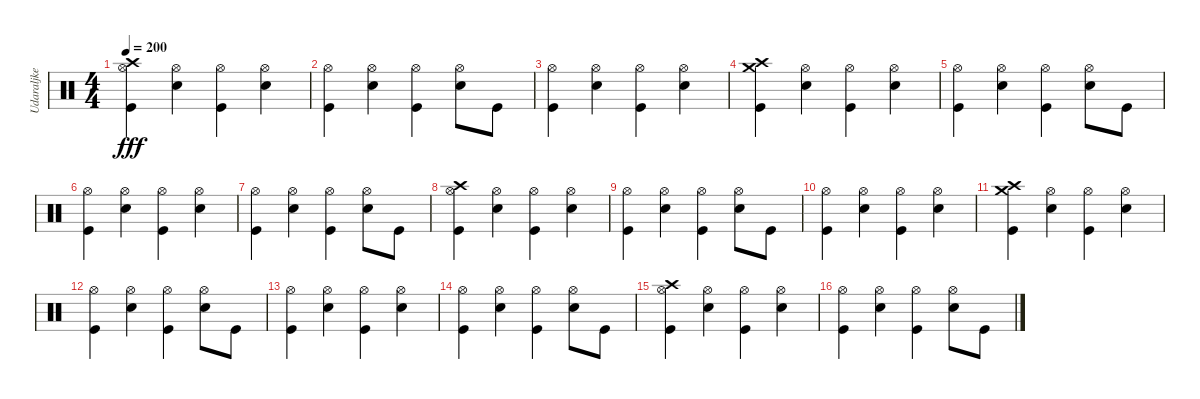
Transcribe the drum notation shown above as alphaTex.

\track ("Udaraljke" "Udaraljke") {instrument percussion}
\staff {score}
\articulation defaults
\ts (4 4)
\tempo 200
\clef neutral
\ks c
("Crash high (hit)" "Hi-Hat (open)" "Kick (hit)").4{dy fff} ("Hi-Hat (open)" "Electric Snare (hit)").4 ("Hi-Hat (open)" "Kick (hit)").4 ("Hi-Hat (open)" "Electric Snare (hit)").4 |
("Hi-Hat (open)" "Kick (hit)").4 ("Hi-Hat (open)" "Electric Snare (hit)").4 ("Hi-Hat (open)" "Kick (hit)").4 ("Hi-Hat (open)" "Electric Snare (hit)").8 "Kick (hit)".8 |
("Hi-Hat (open)" "Kick (hit)").4 ("Hi-Hat (open)" "Electric Snare (hit)").4 ("Hi-Hat (open)" "Kick (hit)").4 ("Hi-Hat (open)" "Electric Snare (hit)").4 |
("Crash high (hit)" "Crash medium (hit)" "Kick (hit)").4 ("Hi-Hat (open)" "Electric Snare (hit)").4 ("Hi-Hat (open)" "Kick (hit)").4 ("Hi-Hat (open)" "Electric Snare (hit)").4 |
("Hi-Hat (open)" "Kick (hit)").4 ("Hi-Hat (open)" "Electric Snare (hit)").4 ("Hi-Hat (open)" "Kick (hit)").4 ("Hi-Hat (open)" "Electric Snare (hit)").8 "Kick (hit)".8 |
("Hi-Hat (open)" "Kick (hit)").4 ("Hi-Hat (open)" "Electric Snare (hit)").4 ("Hi-Hat (open)" "Kick (hit)").4 ("Hi-Hat (open)" "Electric Snare (hit)").4 |
("Hi-Hat (open)" "Kick (hit)").4 ("Hi-Hat (open)" "Electric Snare (hit)").4 ("Hi-Hat (open)" "Kick (hit)").4 ("Hi-Hat (open)" "Electric Snare (hit)").8 "Kick (hit)".8 |
("Crash high (hit)" "Hi-Hat (open)" "Kick (hit)").4 ("Hi-Hat (open)" "Electric Snare (hit)").4 ("Hi-Hat (open)" "Kick (hit)").4 ("Hi-Hat (open)" "Electric Snare (hit)").4 |
("Hi-Hat (open)" "Kick (hit)").4 ("Hi-Hat (open)" "Electric Snare (hit)").4 ("Hi-Hat (open)" "Kick (hit)").4 ("Hi-Hat (open)" "Electric Snare (hit)").8 "Kick (hit)".8 |
("Hi-Hat (open)" "Kick (hit)").4 ("Hi-Hat (open)" "Electric Snare (hit)").4 ("Hi-Hat (open)" "Kick (hit)").4 ("Hi-Hat (open)" "Electric Snare (hit)").4 |
("Crash high (hit)" "Crash medium (hit)" "Kick (hit)").4 ("Hi-Hat (open)" "Electric Snare (hit)").4 ("Hi-Hat (open)" "Kick (hit)").4 ("Hi-Hat (open)" "Electric Snare (hit)").4 |
("Hi-Hat (open)" "Kick (hit)").4 ("Hi-Hat (open)" "Electric Snare (hit)").4 ("Hi-Hat (open)" "Kick (hit)").4 ("Hi-Hat (open)" "Electric Snare (hit)").8 "Kick (hit)".8 |
("Hi-Hat (open)" "Kick (hit)").4 ("Hi-Hat (open)" "Electric Snare (hit)").4 ("Hi-Hat (open)" "Kick (hit)").4 ("Hi-Hat (open)" "Electric Snare (hit)").4 |
("Hi-Hat (open)" "Kick (hit)").4 ("Hi-Hat (open)" "Electric Snare (hit)").4 ("Hi-Hat (open)" "Kick (hit)").4 ("Hi-Hat (open)" "Electric Snare (hit)").8 "Kick (hit)".8 |
("Crash high (hit)" "Hi-Hat (open)" "Kick (hit)").4 ("Hi-Hat (open)" "Electric Snare (hit)").4 ("Hi-Hat (open)" "Kick (hit)").4 ("Hi-Hat (open)" "Electric Snare (hit)").4 |
("Hi-Hat (open)" "Kick (hit)").4 ("Hi-Hat (open)" "Electric Snare (hit)").4 ("Hi-Hat (open)" "Kick (hit)").4 ("Hi-Hat (open)" "Electric Snare (hit)").8 "Kick (hit)".8
